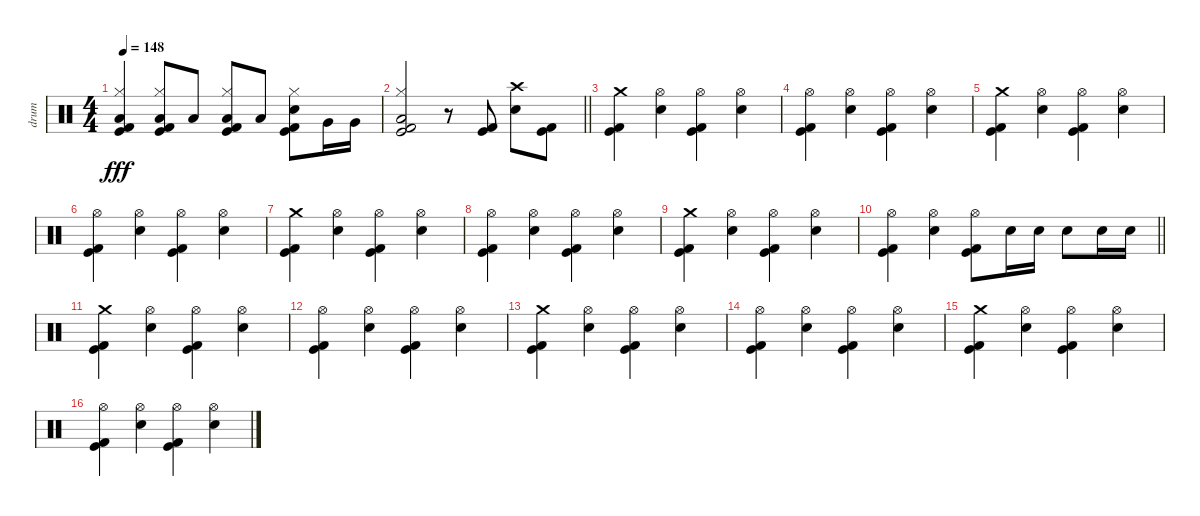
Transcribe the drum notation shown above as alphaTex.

\track ("drum" "drum") {instrument percussion}
\staff {score}
\articulation defaults
\ts (4 4)
\tempo 148
\clef neutral
\ks c
("Low Floor Tom (hit)" "Hi-Hat (closed)" "Kick (hit)" "Kick (hit) 2").4{dy fff} ("Low Floor Tom (hit)" "Hi-Hat (closed)" "Kick (hit)" "Kick (hit) 2").8 "Low Tom (hit)".8 ("Low Floor Tom (hit)" "Hi-Hat (closed)" "Kick (hit)" "Kick (hit) 2").8 "Low Floor Tom (hit)".8 ("Snare (hit) 2" "Hi-Hat (closed)" "Kick (hit)" "Kick (hit) 2").8 "Very Low Tom (hit)".16 "Very Low Tom (hit)".16 |
\barLineRight lightlight
("Low Floor Tom (hit)" "Hi-Hat (closed)" "Kick (hit)" "Kick (hit) 2").2 r.8 ("Kick (hit)" "Kick (hit) 2").8 ("Crash high (hit)" "Snare (hit) 2").8 ("Kick (hit)" "Kick (hit) 2").8 |
\section ("" "")
("Crash medium (hit)" "Kick (hit)" "Kick (hit) 2").4 ("Snare (hit) 2" "Hi-Hat (open)").4 ("Hi-Hat (open)" "Kick (hit)" "Kick (hit) 2").4 ("Snare (hit) 2" "Hi-Hat (open)").4 |
("Hi-Hat (open)" "Kick (hit)" "Kick (hit) 2").4 ("Snare (hit) 2" "Hi-Hat (open)").4 ("Hi-Hat (open)" "Kick (hit)" "Kick (hit) 2").4 ("Snare (hit) 2" "Hi-Hat (open)").4 |
("Crash medium (hit)" "Kick (hit)" "Kick (hit) 2").4 ("Snare (hit) 2" "Hi-Hat (open)").4 ("Hi-Hat (open)" "Kick (hit)" "Kick (hit) 2").4 ("Snare (hit) 2" "Hi-Hat (open)").4 |
("Hi-Hat (open)" "Kick (hit)" "Kick (hit) 2").4 ("Snare (hit) 2" "Hi-Hat (open)").4 ("Hi-Hat (open)" "Kick (hit)" "Kick (hit) 2").4 ("Snare (hit) 2" "Hi-Hat (open)").4 |
("Crash medium (hit)" "Kick (hit)" "Kick (hit) 2").4 ("Snare (hit) 2" "Hi-Hat (open)").4 ("Hi-Hat (open)" "Kick (hit)" "Kick (hit) 2").4 ("Snare (hit) 2" "Hi-Hat (open)").4 |
("Hi-Hat (open)" "Kick (hit)" "Kick (hit) 2").4 ("Snare (hit) 2" "Hi-Hat (open)").4 ("Hi-Hat (open)" "Kick (hit)" "Kick (hit) 2").4 ("Snare (hit) 2" "Hi-Hat (open)").4 |
("Crash medium (hit)" "Kick (hit)" "Kick (hit) 2").4 ("Snare (hit) 2" "Hi-Hat (open)").4 ("Hi-Hat (open)" "Kick (hit)" "Kick (hit) 2").4 ("Snare (hit) 2" "Hi-Hat (open)").4 |
\barLineRight lightlight
("Hi-Hat (open)" "Kick (hit)" "Kick (hit) 2").4 ("Snare (hit) 2" "Hi-Hat (open)").4 ("Hi-Hat (open)" "Kick (hit)" "Kick (hit) 2").8 "Snare (hit) 2".16 "Snare (hit) 2".16 "Snare (hit) 2".8 "Snare (hit) 2".16 "Snare (hit) 2".16 |
("Crash medium (hit)" "Kick (hit)" "Kick (hit) 2").4 ("Snare (hit) 2" "Hi-Hat (open)").4 ("Hi-Hat (open)" "Kick (hit)" "Kick (hit) 2").4 ("Snare (hit) 2" "Hi-Hat (open)").4 |
("Hi-Hat (open)" "Kick (hit)" "Kick (hit) 2").4 ("Snare (hit) 2" "Hi-Hat (open)").4 ("Hi-Hat (open)" "Kick (hit)" "Kick (hit) 2").4 ("Snare (hit) 2" "Hi-Hat (open)").4 |
("Crash medium (hit)" "Kick (hit)" "Kick (hit) 2").4 ("Snare (hit) 2" "Hi-Hat (open)").4 ("Hi-Hat (open)" "Kick (hit)" "Kick (hit) 2").4 ("Snare (hit) 2" "Hi-Hat (open)").4 |
("Hi-Hat (open)" "Kick (hit)" "Kick (hit) 2").4 ("Snare (hit) 2" "Hi-Hat (open)").4 ("Hi-Hat (open)" "Kick (hit)" "Kick (hit) 2").4 ("Snare (hit) 2" "Hi-Hat (open)").4 |
("Crash medium (hit)" "Kick (hit)" "Kick (hit) 2").4 ("Snare (hit) 2" "Hi-Hat (open)").4 ("Hi-Hat (open)" "Kick (hit)" "Kick (hit) 2").4 ("Snare (hit) 2" "Hi-Hat (open)").4 |
("Hi-Hat (open)" "Kick (hit)" "Kick (hit) 2").4 ("Snare (hit) 2" "Hi-Hat (open)").4 ("Hi-Hat (open)" "Kick (hit)" "Kick (hit) 2").4 ("Snare (hit) 2" "Hi-Hat (open)").4
